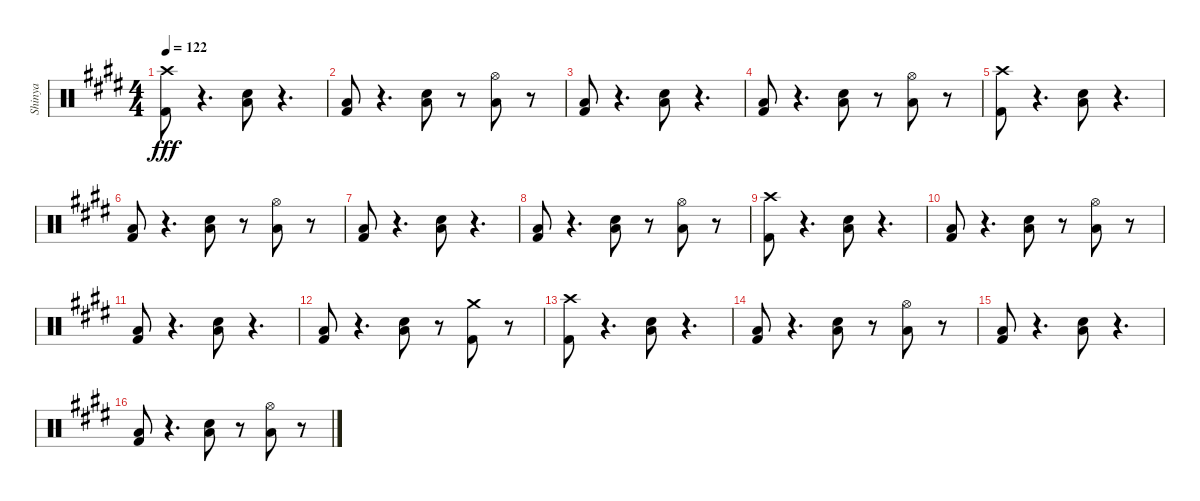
\track ("Shinya" "Shinya") {instrument percussion}
\staff {score}
\articulation defaults
\ts (4 4)
\tempo 122
\clef neutral
\ks c#minor
("Kick (hit) 2" "Crash high (hit)").8{dy fff} r.4{d} ("Snare (hit) 2" "Low Tom (hit)").8 r.4{d} |
("Kick (hit) 2" "Low Tom (hit)").8 r.4{d} ("Snare (hit) 2" "Low Tom (hit)").8 r.8 ("Low Tom (hit)" "Hi-Hat (open)").8 r.8 |
("Kick (hit) 2" "Low Tom (hit)").8 r.4{d} ("Snare (hit) 2" "Low Tom (hit)").8 r.4{d} |
("Kick (hit) 2" "Low Tom (hit)").8 r.4{d} ("Snare (hit) 2" "Low Tom (hit)").8 r.8 ("Low Tom (hit)" "Hi-Hat (open)").8 r.8 |
("Kick (hit) 2" "Crash high (hit)").8 r.4{d} ("Snare (hit) 2" "Low Tom (hit)").8 r.4{d} |
("Kick (hit) 2" "Low Tom (hit)").8 r.4{d} ("Snare (hit) 2" "Low Tom (hit)").8 r.8 ("Low Tom (hit)" "Hi-Hat (open)").8 r.8 |
("Kick (hit) 2" "Low Tom (hit)").8 r.4{d} ("Snare (hit) 2" "Low Tom (hit)").8 r.4{d} |
("Kick (hit) 2" "Low Tom (hit)").8 r.4{d} ("Snare (hit) 2" "Low Tom (hit)").8 r.8 ("Low Tom (hit)" "Hi-Hat (open)").8 r.8 |
("Kick (hit) 2" "Crash high (hit)").8 r.4{d} ("Snare (hit) 2" "Low Tom (hit)").8 r.4{d} |
("Kick (hit) 2" "Low Tom (hit)").8 r.4{d} ("Snare (hit) 2" "Low Tom (hit)").8 r.8 ("Low Tom (hit)" "Hi-Hat (open)").8 r.8 |
("Kick (hit) 2" "Low Tom (hit)").8 r.4{d} ("Snare (hit) 2" "Low Tom (hit)").8 r.4{d} |
("Kick (hit) 2" "Low Tom (hit)").8 r.4{d} ("Snare (hit) 2" "Low Tom (hit)").8 r.8 ("Kick (hit) 2" "Crash medium (hit)").8 r.8 |
("Kick (hit) 2" "Crash high (hit)").8 r.4{d} ("Snare (hit) 2" "Low Tom (hit)").8 r.4{d} |
("Kick (hit) 2" "Low Tom (hit)").8 r.4{d} ("Snare (hit) 2" "Low Tom (hit)").8 r.8 ("Low Tom (hit)" "Hi-Hat (open)").8 r.8 |
("Kick (hit) 2" "Low Tom (hit)").8 r.4{d} ("Snare (hit) 2" "Low Tom (hit)").8 r.4{d} |
("Kick (hit) 2" "Low Tom (hit)").8 r.4{d} ("Snare (hit) 2" "Low Tom (hit)").8 r.8 ("Low Tom (hit)" "Hi-Hat (open)").8 r.8
